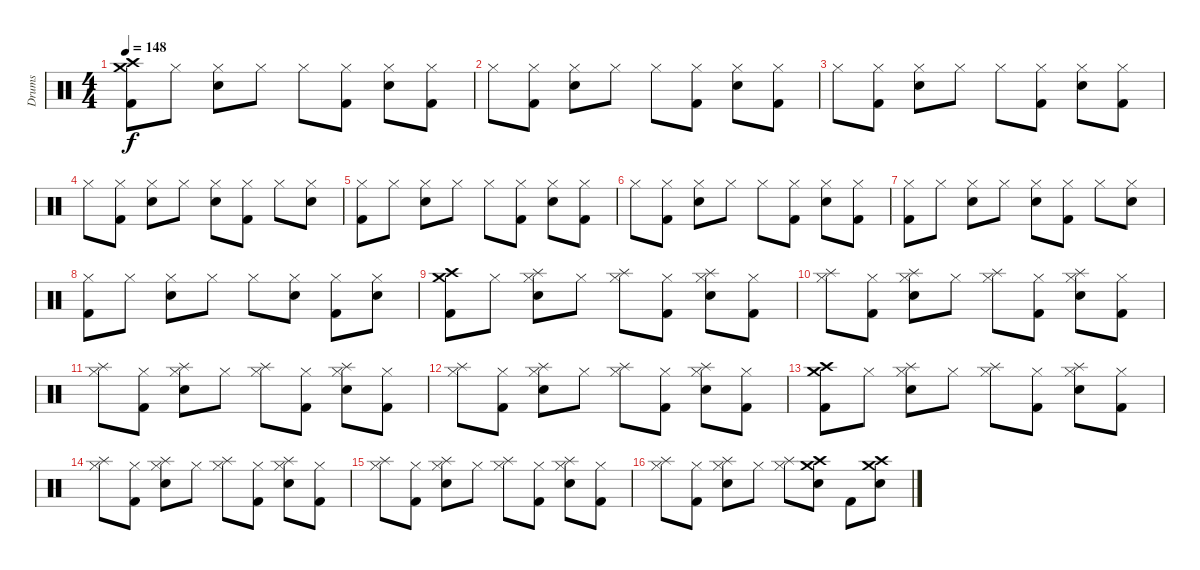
\track ("Drums" "Drums") {instrument percussion}
\staff {score}
\articulation defaults
\ts (4 4)
\tempo 148
\clef neutral
\ks c
("Crash medium (hit)" "Crash high (hit)" "Kick (hit) 2").8{dy f} "Hi-Hat (closed)".8 ("Hi-Hat (closed)" "Snare (hit) 2").8 "Hi-Hat (closed)".8 "Hi-Hat (closed)".8 ("Hi-Hat (closed)" "Kick (hit) 2").8 ("Hi-Hat (closed)" "Snare (hit) 2").8 ("Hi-Hat (closed)" "Kick (hit) 2").8 |
"Hi-Hat (closed)".8 ("Hi-Hat (closed)" "Kick (hit) 2").8 ("Hi-Hat (closed)" "Snare (hit) 2").8{volume 13 balance 8} "Hi-Hat (closed)".8 "Hi-Hat (closed)".8 ("Hi-Hat (closed)" "Kick (hit) 2").8 ("Hi-Hat (closed)" "Snare (hit) 2").8 ("Hi-Hat (closed)" "Kick (hit) 2").8 |
"Hi-Hat (closed)".8 ("Hi-Hat (closed)" "Kick (hit) 2").8 ("Hi-Hat (closed)" "Snare (hit) 2").8 "Hi-Hat (closed)".8 "Hi-Hat (closed)".8 ("Hi-Hat (closed)" "Kick (hit) 2").8 ("Hi-Hat (closed)" "Snare (hit) 2").8 ("Hi-Hat (closed)" "Kick (hit) 2").8 |
"Hi-Hat (closed)".8 ("Hi-Hat (closed)" "Kick (hit) 2").8 ("Hi-Hat (closed)" "Snare (hit) 2").8 "Hi-Hat (closed)".8 ("Hi-Hat (closed)" "Snare (hit) 2").8 ("Hi-Hat (closed)" "Kick (hit) 2").8 "Hi-Hat (closed)".8 ("Hi-Hat (closed)" "Snare (hit) 2").8 |
("Hi-Hat (closed)" "Kick (hit) 2").8 "Hi-Hat (closed)".8 ("Hi-Hat (closed)" "Snare (hit) 2").8 "Hi-Hat (closed)".8 "Hi-Hat (closed)".8 ("Hi-Hat (closed)" "Kick (hit) 2").8 ("Hi-Hat (closed)" "Snare (hit) 2").8 ("Hi-Hat (closed)" "Kick (hit) 2").8 |
"Hi-Hat (closed)".8 ("Hi-Hat (closed)" "Kick (hit) 2").8 ("Hi-Hat (closed)" "Snare (hit) 2").8 "Hi-Hat (closed)".8 "Hi-Hat (closed)".8 ("Hi-Hat (closed)" "Kick (hit) 2").8 ("Hi-Hat (closed)" "Snare (hit) 2").8 ("Hi-Hat (closed)" "Kick (hit) 2").8 |
("Hi-Hat (closed)" "Kick (hit) 2").8 "Hi-Hat (closed)".8 ("Hi-Hat (closed)" "Snare (hit) 2").8 "Hi-Hat (closed)".8 ("Hi-Hat (closed)" "Snare (hit) 2").8 ("Hi-Hat (closed)" "Kick (hit) 2").8 "Hi-Hat (closed)".8 ("Hi-Hat (closed)" "Snare (hit) 2").8 |
("Hi-Hat (closed)" "Kick (hit) 2").8 "Hi-Hat (closed)".8 ("Hi-Hat (closed)" "Snare (hit) 2").8 "Hi-Hat (closed)".8 "Hi-Hat (closed)".8 ("Hi-Hat (closed)" "Snare (hit) 2").8 ("Hi-Hat (closed)" "Kick (hit) 2").8 ("Hi-Hat (closed)" "Snare (hit) 2").8 |
("Crash medium (hit)" "Crash high (hit)" "Kick (hit) 2").8 "Hi-Hat (closed)".8 ("Hi-Hat (closed)" "Snare (hit) 2" "Splash (hit)").8 "Hi-Hat (closed)".8 ("Hi-Hat (closed)" "Splash (hit)").8 ("Hi-Hat (closed)" "Kick (hit) 2").8 ("Hi-Hat (closed)" "Snare (hit) 2" "Splash (hit)").8 ("Hi-Hat (closed)" "Kick (hit) 2").8 |
("Hi-Hat (closed)" "Splash (hit)").8 ("Hi-Hat (closed)" "Kick (hit) 2").8 ("Hi-Hat (closed)" "Splash (hit)" "Snare (hit) 2").8{volume 13 balance 8} "Hi-Hat (closed)".8 ("Hi-Hat (closed)" "Splash (hit)").8 ("Hi-Hat (closed)" "Kick (hit) 2").8 ("Hi-Hat (closed)" "Snare (hit) 2" "Splash (hit)").8 ("Hi-Hat (closed)" "Kick (hit) 2").8 |
("Hi-Hat (closed)" "Splash (hit)").8 ("Hi-Hat (closed)" "Kick (hit) 2").8 ("Hi-Hat (closed)" "Splash (hit)" "Snare (hit) 2").8 "Hi-Hat (closed)".8 ("Hi-Hat (closed)" "Splash (hit)").8 ("Hi-Hat (closed)" "Kick (hit) 2").8 ("Hi-Hat (closed)" "Snare (hit) 2" "Splash (hit)").8 ("Hi-Hat (closed)" "Kick (hit) 2").8 |
("Hi-Hat (closed)" "Splash (hit)").8 ("Hi-Hat (closed)" "Kick (hit) 2").8 ("Hi-Hat (closed)" "Splash (hit)" "Snare (hit) 2").8 "Hi-Hat (closed)".8 ("Hi-Hat (closed)" "Splash (hit)").8 ("Kick (hit) 2" "Hi-Hat (closed)").8 ("Snare (hit) 2" "Hi-Hat (closed)" "Splash (hit)").8 ("Hi-Hat (closed)" "Kick (hit) 2").8 |
("Kick (hit) 2" "Crash medium (hit)" "Crash high (hit)").8 "Hi-Hat (closed)".8 ("Hi-Hat (closed)" "Splash (hit)" "Snare (hit) 2").8 "Hi-Hat (closed)".8 ("Hi-Hat (closed)" "Splash (hit)").8 ("Hi-Hat (closed)" "Kick (hit) 2").8 ("Hi-Hat (closed)" "Snare (hit) 2" "Splash (hit)").8 ("Hi-Hat (closed)" "Kick (hit) 2").8 |
("Hi-Hat (closed)" "Splash (hit)").8 ("Hi-Hat (closed)" "Kick (hit) 2").8 ("Hi-Hat (closed)" "Snare (hit) 2" "Splash (hit)").8 "Hi-Hat (closed)".8 ("Hi-Hat (closed)" "Splash (hit)").8 ("Hi-Hat (closed)" "Kick (hit) 2").8 ("Hi-Hat (closed)" "Snare (hit) 2" "Splash (hit)").8 ("Hi-Hat (closed)" "Kick (hit) 2").8 |
("Hi-Hat (closed)" "Splash (hit)").8 ("Kick (hit) 2" "Hi-Hat (closed)").8 ("Hi-Hat (closed)" "Snare (hit) 2" "Splash (hit)").8 "Hi-Hat (closed)".8 ("Hi-Hat (closed)" "Splash (hit)").8 ("Hi-Hat (closed)" "Kick (hit) 2").8 ("Snare (hit) 2" "Hi-Hat (closed)" "Splash (hit)").8 ("Kick (hit) 2" "Hi-Hat (closed)").8 |
("Hi-Hat (closed)" "Splash (hit)").8 ("Kick (hit) 2" "Hi-Hat (closed)").8 ("Hi-Hat (closed)" "Splash (hit)" "Snare (hit) 2").8 "Hi-Hat (closed)".8 ("Hi-Hat (closed)" "Splash (hit)").8 ("Crash high (hit)" "Crash medium (hit)" "Snare (hit) 2").8 "Kick (hit) 2".8 ("Crash medium (hit)" "Crash high (hit)" "Snare (hit) 2").8
